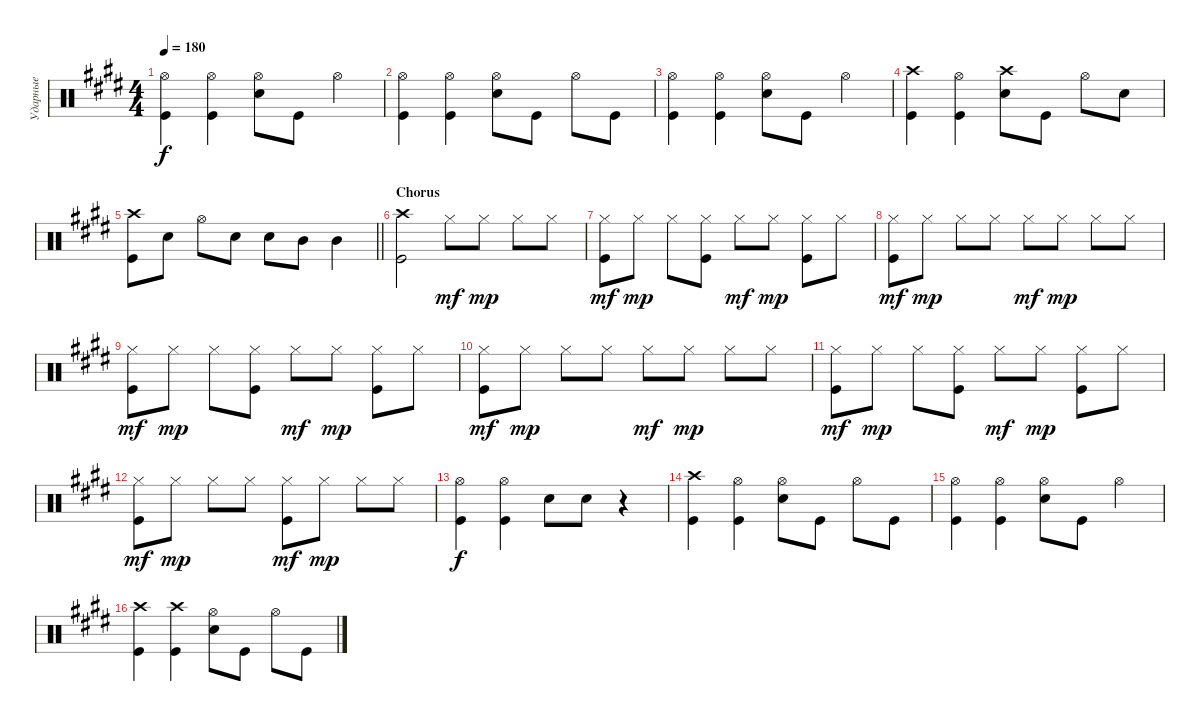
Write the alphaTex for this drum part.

\track ("Ударные" "Ударные") {instrument percussion}
\staff {score}
\articulation defaults
\ts (4 4)
\tempo 180
\clef neutral
\ks c#minor
("Kick (hit)" "Hi-Hat (open)").4{dy f} ("Hi-Hat (open)" "Kick (hit)").4 ("Snare (hit) 2" "Hi-Hat (open)").8 "Kick (hit)".8 "Hi-Hat (open)".4 |
("Kick (hit)" "Hi-Hat (open)").4 ("Kick (hit)" "Hi-Hat (open)").4 ("Snare (hit) 2" "Hi-Hat (open)").8 "Kick (hit)".8 "Hi-Hat (open)".8 "Kick (hit)".8 |
("Kick (hit)" "Hi-Hat (open)").4 ("Hi-Hat (open)" "Kick (hit)").4 ("Snare (hit) 2" "Hi-Hat (open)").8 "Kick (hit)".8 "Hi-Hat (open)".4 |
("Kick (hit)" "Crash high (hit)").4 ("Kick (hit)" "Hi-Hat (open)").4 ("Snare (hit) 2" "Crash high (hit)").8 "Kick (hit)".8 "Hi-Hat (open)".8 "Snare (hit) 2".8 |
\barLineRight lightlight
("Kick (hit)" "Crash high (hit)").8 "Snare (hit) 2".8 "Hi-Hat (open)".8 "Snare (hit) 2".8 "Snare (hit) 2".8 "Mid Tom (hit)".8 "Mid Tom (hit)".4 |
\section ("" "Chorus")
("Crash high (hit)" "Kick (hit)").2 "Hi-Hat (closed)".8{dy mf} "Hi-Hat (closed)".8{dy mp} "Hi-Hat (closed)".8 "Hi-Hat (closed)".8 |
("Hi-Hat (closed)" "Kick (hit)").8{dy mf} "Hi-Hat (closed)".8{dy mp} "Hi-Hat (closed)".8 ("Hi-Hat (closed)" "Kick (hit)").8 "Hi-Hat (closed)".8{dy mf} "Hi-Hat (closed)".8{dy mp} ("Hi-Hat (closed)" "Kick (hit)").8 "Hi-Hat (closed)".8 |
("Hi-Hat (closed)" "Kick (hit)").8{dy mf} "Hi-Hat (closed)".8{dy mp} "Hi-Hat (closed)".8 "Hi-Hat (closed)".8 "Hi-Hat (closed)".8{dy mf} "Hi-Hat (closed)".8{dy mp} "Hi-Hat (closed)".8 "Hi-Hat (closed)".8 |
("Hi-Hat (closed)" "Kick (hit)").8{dy mf} "Hi-Hat (closed)".8{dy mp} "Hi-Hat (closed)".8 ("Hi-Hat (closed)" "Kick (hit)").8 "Hi-Hat (closed)".8{dy mf} "Hi-Hat (closed)".8{dy mp} ("Hi-Hat (closed)" "Kick (hit)").8 "Hi-Hat (closed)".8 |
("Hi-Hat (closed)" "Kick (hit)").8{dy mf} "Hi-Hat (closed)".8{dy mp} "Hi-Hat (closed)".8 "Hi-Hat (closed)".8 "Hi-Hat (closed)".8{dy mf} "Hi-Hat (closed)".8{dy mp} "Hi-Hat (closed)".8 "Hi-Hat (closed)".8 |
("Hi-Hat (closed)" "Kick (hit)").8{dy mf} "Hi-Hat (closed)".8{dy mp} "Hi-Hat (closed)".8 ("Hi-Hat (closed)" "Kick (hit)").8 "Hi-Hat (closed)".8{dy mf} "Hi-Hat (closed)".8{dy mp} ("Hi-Hat (closed)" "Kick (hit)").8 "Hi-Hat (closed)".8 |
("Hi-Hat (closed)" "Kick (hit)").8{dy mf} "Hi-Hat (closed)".8{dy mp} "Hi-Hat (closed)".8 "Hi-Hat (closed)".8 ("Hi-Hat (closed)" "Kick (hit)").8{dy mf} "Hi-Hat (closed)".8{dy mp} "Hi-Hat (closed)".8 "Hi-Hat (closed)".8 |
("Kick (hit)" "Hi-Hat (open)").4{dy f} ("Hi-Hat (open)" "Kick (hit)").4 "Snare (hit) 2".8 "Snare (hit) 2".8 r.4 |
("Kick (hit)" "Crash high (hit)").4 ("Kick (hit)" "Hi-Hat (open)").4 ("Snare (hit) 2" "Hi-Hat (open)").8 "Kick (hit)".8 "Hi-Hat (open)".8 "Kick (hit)".8 |
("Kick (hit)" "Hi-Hat (open)").4 ("Hi-Hat (open)" "Kick (hit)").4 ("Snare (hit) 2" "Hi-Hat (open)").8 "Kick (hit)".8 "Hi-Hat (open)".4 |
("Kick (hit)" "Crash high (hit)").4 ("Kick (hit)" "Crash high (hit)").4 ("Snare (hit) 2" "Hi-Hat (open)").8 "Kick (hit)".8 "Hi-Hat (open)".8 "Kick (hit)".8
